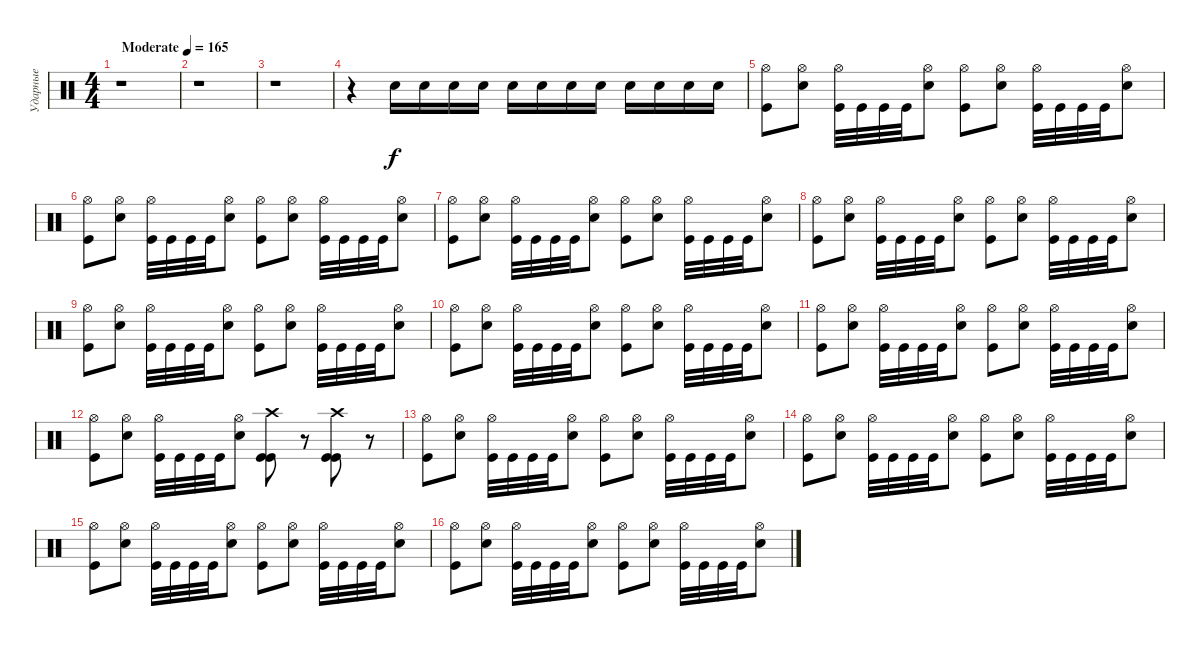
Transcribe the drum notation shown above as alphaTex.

\track ("Ударные" "Ударные") {instrument percussion}
\staff {score}
\articulation defaults
\ts (4 4)
\section ("" "")
\tempo (165 "Moderate")
\clef neutral
\ks c
r.1{dy f} |
r.1 |
r.1 |
r.4 "Electric Snare (hit)".16 "Electric Snare (hit)".16 "Electric Snare (hit)".16 "Electric Snare (hit)".16 "Electric Snare (hit)".16 "Electric Snare (hit)".16 "Electric Snare (hit)".16 "Electric Snare (hit)".16 "Electric Snare (hit)".16 "Electric Snare (hit)".16 "Electric Snare (hit)".16 "Electric Snare (hit)".16 |
("Hi-Hat (open)" "Kick (hit)").8 ("Hi-Hat (open)" "Electric Snare (hit)").8 ("Hi-Hat (open)" "Kick (hit)").32 "Kick (hit)".32 "Kick (hit)".32 "Kick (hit)".32 ("Hi-Hat (open)" "Electric Snare (hit)").8 ("Hi-Hat (open)" "Kick (hit)").8 ("Hi-Hat (open)" "Electric Snare (hit)").8 ("Hi-Hat (open)" "Kick (hit)").32 "Kick (hit)".32 "Kick (hit)".32 "Kick (hit)".32 ("Hi-Hat (open)" "Electric Snare (hit)").8 |
("Hi-Hat (open)" "Kick (hit)").8 ("Hi-Hat (open)" "Electric Snare (hit)").8 ("Hi-Hat (open)" "Kick (hit)").32 "Kick (hit)".32 "Kick (hit)".32 "Kick (hit)".32 ("Hi-Hat (open)" "Electric Snare (hit)").8 ("Hi-Hat (open)" "Kick (hit)").8 ("Hi-Hat (open)" "Electric Snare (hit)").8 ("Hi-Hat (open)" "Kick (hit)").32 "Kick (hit)".32 "Kick (hit)".32 "Kick (hit)".32 ("Hi-Hat (open)" "Electric Snare (hit)").8 |
("Hi-Hat (open)" "Kick (hit)").8 ("Hi-Hat (open)" "Electric Snare (hit)").8 ("Hi-Hat (open)" "Kick (hit)").32 "Kick (hit)".32 "Kick (hit)".32 "Kick (hit)".32 ("Hi-Hat (open)" "Electric Snare (hit)").8 ("Hi-Hat (open)" "Kick (hit)").8 ("Hi-Hat (open)" "Electric Snare (hit)").8 ("Hi-Hat (open)" "Kick (hit)").32 "Kick (hit)".32 "Kick (hit)".32 "Kick (hit)".32 ("Hi-Hat (open)" "Electric Snare (hit)").8 |
("Hi-Hat (open)" "Kick (hit)").8 ("Hi-Hat (open)" "Electric Snare (hit)").8 ("Hi-Hat (open)" "Kick (hit)").32 "Kick (hit)".32 "Kick (hit)".32 "Kick (hit)".32 ("Hi-Hat (open)" "Electric Snare (hit)").8 ("Hi-Hat (open)" "Kick (hit)").8 ("Hi-Hat (open)" "Electric Snare (hit)").8 ("Hi-Hat (open)" "Kick (hit)").32 "Kick (hit)".32 "Kick (hit)".32 "Kick (hit)".32 ("Hi-Hat (open)" "Electric Snare (hit)").8 |
("Hi-Hat (open)" "Kick (hit)").8 ("Hi-Hat (open)" "Electric Snare (hit)").8 ("Hi-Hat (open)" "Kick (hit)").32 "Kick (hit)".32 "Kick (hit)".32 "Kick (hit)".32 ("Hi-Hat (open)" "Electric Snare (hit)").8 ("Hi-Hat (open)" "Kick (hit)").8 ("Hi-Hat (open)" "Electric Snare (hit)").8 ("Hi-Hat (open)" "Kick (hit)").32 "Kick (hit)".32 "Kick (hit)".32 "Kick (hit)".32 ("Hi-Hat (open)" "Electric Snare (hit)").8 |
("Hi-Hat (open)" "Kick (hit)").8 ("Hi-Hat (open)" "Electric Snare (hit)").8 ("Hi-Hat (open)" "Kick (hit)").32 "Kick (hit)".32 "Kick (hit)".32 "Kick (hit)".32 ("Hi-Hat (open)" "Electric Snare (hit)").8 ("Hi-Hat (open)" "Kick (hit)").8 ("Hi-Hat (open)" "Electric Snare (hit)").8 ("Hi-Hat (open)" "Kick (hit)").32 "Kick (hit)".32 "Kick (hit)".32 "Kick (hit)".32 ("Hi-Hat (open)" "Electric Snare (hit)").8 |
("Hi-Hat (open)" "Kick (hit)").8 ("Hi-Hat (open)" "Electric Snare (hit)").8 ("Hi-Hat (open)" "Kick (hit)").32 "Kick (hit)".32 "Kick (hit)".32 "Kick (hit)".32 ("Hi-Hat (open)" "Electric Snare (hit)").8 ("Hi-Hat (open)" "Kick (hit)").8 ("Hi-Hat (open)" "Electric Snare (hit)").8 ("Hi-Hat (open)" "Kick (hit)").32 "Kick (hit)".32 "Kick (hit)".32 "Kick (hit)".32 ("Hi-Hat (open)" "Electric Snare (hit)").8 |
("Hi-Hat (open)" "Kick (hit)").8 ("Hi-Hat (open)" "Electric Snare (hit)").8 ("Hi-Hat (open)" "Kick (hit)").32 "Kick (hit)".32 "Kick (hit)".32 "Kick (hit)".32 ("Hi-Hat (open)" "Electric Snare (hit)").8 ("Crash high (hit)" "Kick (hit)" "Kick (hit)").8 r.8 ("Crash high (hit)" "Kick (hit)" "Kick (hit)").8 r.8 |
("Hi-Hat (open)" "Kick (hit)").8 ("Hi-Hat (open)" "Electric Snare (hit)").8 ("Hi-Hat (open)" "Kick (hit)").32 "Kick (hit)".32 "Kick (hit)".32 "Kick (hit)".32 ("Hi-Hat (open)" "Electric Snare (hit)").8 ("Hi-Hat (open)" "Kick (hit)").8 ("Hi-Hat (open)" "Electric Snare (hit)").8 ("Hi-Hat (open)" "Kick (hit)").32 "Kick (hit)".32 "Kick (hit)".32 "Kick (hit)".32 ("Hi-Hat (open)" "Electric Snare (hit)").8 |
("Hi-Hat (open)" "Kick (hit)").8 ("Hi-Hat (open)" "Electric Snare (hit)").8 ("Hi-Hat (open)" "Kick (hit)").32 "Kick (hit)".32 "Kick (hit)".32 "Kick (hit)".32 ("Hi-Hat (open)" "Electric Snare (hit)").8 ("Hi-Hat (open)" "Kick (hit)").8 ("Hi-Hat (open)" "Electric Snare (hit)").8 ("Hi-Hat (open)" "Kick (hit)").32 "Kick (hit)".32 "Kick (hit)".32 "Kick (hit)".32 ("Hi-Hat (open)" "Electric Snare (hit)").8 |
("Hi-Hat (open)" "Kick (hit)").8 ("Hi-Hat (open)" "Electric Snare (hit)").8 ("Hi-Hat (open)" "Kick (hit)").32 "Kick (hit)".32 "Kick (hit)".32 "Kick (hit)".32 ("Hi-Hat (open)" "Electric Snare (hit)").8 ("Hi-Hat (open)" "Kick (hit)").8 ("Hi-Hat (open)" "Electric Snare (hit)").8 ("Hi-Hat (open)" "Kick (hit)").32 "Kick (hit)".32 "Kick (hit)".32 "Kick (hit)".32 ("Hi-Hat (open)" "Electric Snare (hit)").8 |
("Hi-Hat (open)" "Kick (hit)").8 ("Hi-Hat (open)" "Electric Snare (hit)").8 ("Hi-Hat (open)" "Kick (hit)").32 "Kick (hit)".32 "Kick (hit)".32 "Kick (hit)".32 ("Hi-Hat (open)" "Electric Snare (hit)").8 ("Hi-Hat (open)" "Kick (hit)").8 ("Hi-Hat (open)" "Electric Snare (hit)").8 ("Hi-Hat (open)" "Kick (hit)").32 "Kick (hit)".32 "Kick (hit)".32 "Kick (hit)".32 ("Hi-Hat (open)" "Electric Snare (hit)").8
